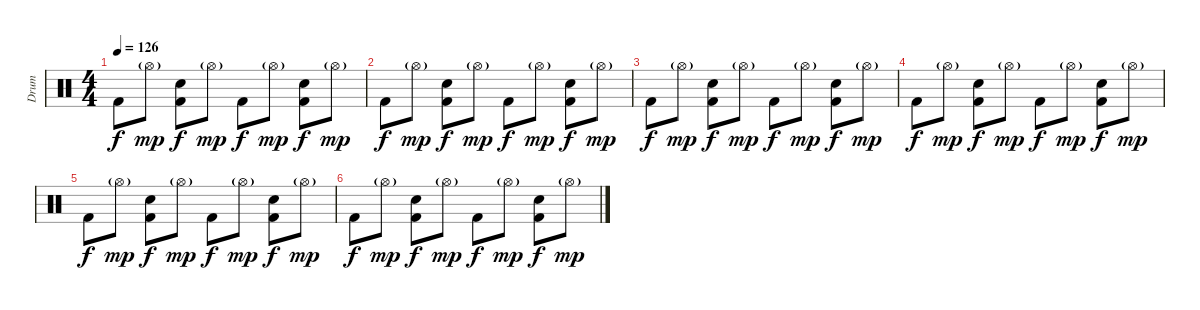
\track ("Drum" "Drum") {instrument percussion}
\staff {score}
\articulation defaults
\ts (4 4)
\tempo 126
\clef neutral
\ks c "Kick (hit) 2".8{dy f} "Hi-Hat (open)"{g}.8{dy mp}
("Electric Snare (hit)" "Kick (hit) 2").8{dy f} "Hi-Hat (open)"{g}.8{dy mp} "Kick (hit) 2".8{dy f} "Hi-Hat (open)"{g}.8{dy mp} ("Electric Snare (hit)" "Kick (hit) 2").8{dy f} "Hi-Hat (open)"{g}.8{dy mp} |
"Kick (hit) 2".8{dy f} "Hi-Hat (open)"{g}.8{dy mp} ("Electric Snare (hit)" "Kick (hit) 2").8{dy f} "Hi-Hat (open)"{g}.8{dy mp} "Kick (hit) 2".8{dy f} "Hi-Hat (open)"{g}.8{dy mp} ("Electric Snare (hit)" "Kick (hit) 2").8{dy f} "Hi-Hat (open)"{g}.8{dy mp} |
"Kick (hit) 2".8{dy f} "Hi-Hat (open)"{g}.8{dy mp} ("Electric Snare (hit)" "Kick (hit) 2").8{dy f} "Hi-Hat (open)"{g}.8{dy mp} "Kick (hit) 2".8{dy f} "Hi-Hat (open)"{g}.8{dy mp} ("Electric Snare (hit)" "Kick (hit) 2").8{dy f} "Hi-Hat (open)"{g}.8{dy mp} |
"Kick (hit) 2".8{dy f} "Hi-Hat (open)"{g}.8{dy mp} ("Electric Snare (hit)" "Kick (hit) 2").8{dy f} "Hi-Hat (open)"{g}.8{dy mp} "Kick (hit) 2".8{dy f} "Hi-Hat (open)"{g}.8{dy mp} ("Electric Snare (hit)" "Kick (hit) 2").8{dy f} "Hi-Hat (open)"{g}.8{dy mp} |
"Kick (hit) 2".8{dy f} "Hi-Hat (open)"{g}.8{dy mp} ("Electric Snare (hit)" "Kick (hit) 2").8{dy f} "Hi-Hat (open)"{g}.8{dy mp} "Kick (hit) 2".8{dy f} "Hi-Hat (open)"{g}.8{dy mp} ("Electric Snare (hit)" "Kick (hit) 2").8{dy f} "Hi-Hat (open)"{g}.8{dy mp} |
"Kick (hit) 2".8{dy f} "Hi-Hat (open)"{g}.8{dy mp} ("Electric Snare (hit)" "Kick (hit) 2").8{dy f} "Hi-Hat (open)"{g}.8{dy mp} "Kick (hit) 2".8{dy f} "Hi-Hat (open)"{g}.8{dy mp} ("Electric Snare (hit)" "Kick (hit) 2").8{dy f} "Hi-Hat (open)"{g}.8{dy mp}
